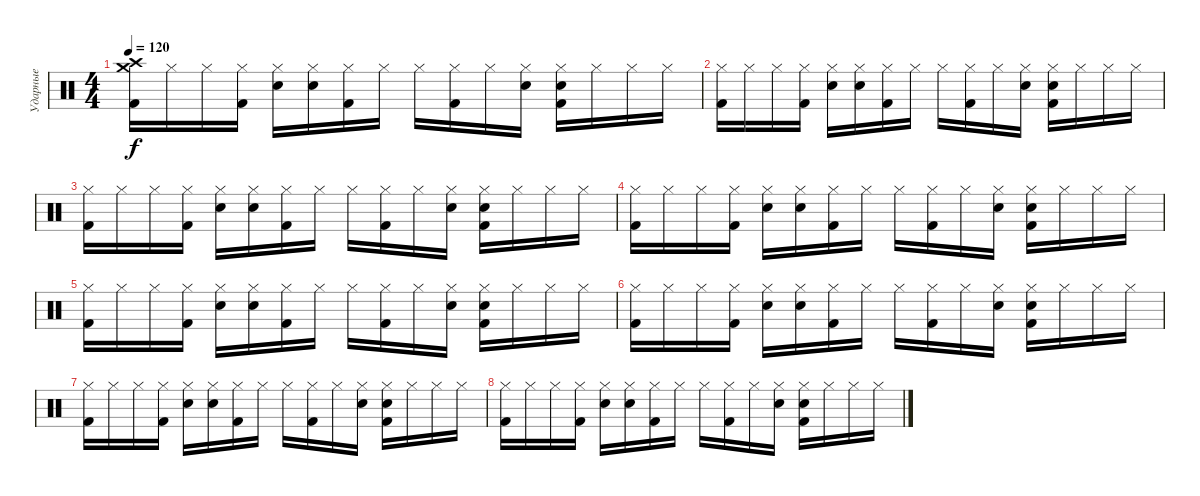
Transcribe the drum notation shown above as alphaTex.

\track ("Ударные" "Ударные") {instrument percussion}
\staff {score}
\articulation defaults
\ts (4 4)
\tempo 120
\clef neutral
\ks c
("Kick (hit) 2" "Crash high (hit)" "Crash medium (hit)").16{dy f} "Hi-Hat (closed)".16 "Hi-Hat (closed)".16 ("Kick (hit) 2" "Hi-Hat (closed)").16 ("Hi-Hat (closed)" "Electric Snare (hit)").16 ("Hi-Hat (closed)" "Electric Snare (hit)").16 ("Kick (hit) 2" "Hi-Hat (closed)").16 "Hi-Hat (closed)".16 "Hi-Hat (closed)".16 ("Kick (hit) 2" "Hi-Hat (closed)").16 "Hi-Hat (closed)".16 ("Hi-Hat (closed)" "Electric Snare (hit)").16 ("Kick (hit) 2" "Hi-Hat (closed)" "Electric Snare (hit)").16 "Hi-Hat (closed)".16 "Hi-Hat (closed)".16 "Hi-Hat (closed)".16 |
("Kick (hit) 2" "Hi-Hat (closed)").16 "Hi-Hat (closed)".16 "Hi-Hat (closed)".16 ("Kick (hit) 2" "Hi-Hat (closed)").16 ("Hi-Hat (closed)" "Electric Snare (hit)").16 ("Hi-Hat (closed)" "Electric Snare (hit)").16 ("Kick (hit) 2" "Hi-Hat (closed)").16 "Hi-Hat (closed)".16 "Hi-Hat (closed)".16 ("Kick (hit) 2" "Hi-Hat (closed)").16 "Hi-Hat (closed)".16 ("Hi-Hat (closed)" "Electric Snare (hit)").16 ("Kick (hit) 2" "Hi-Hat (closed)" "Electric Snare (hit)").16 "Hi-Hat (closed)".16 "Hi-Hat (closed)".16 "Hi-Hat (closed)".16 |
("Kick (hit) 2" "Hi-Hat (closed)").16 "Hi-Hat (closed)".16 "Hi-Hat (closed)".16 ("Kick (hit) 2" "Hi-Hat (closed)").16 ("Hi-Hat (closed)" "Electric Snare (hit)").16 ("Hi-Hat (closed)" "Electric Snare (hit)").16 ("Kick (hit) 2" "Hi-Hat (closed)").16 "Hi-Hat (closed)".16 "Hi-Hat (closed)".16 ("Kick (hit) 2" "Hi-Hat (closed)").16 "Hi-Hat (closed)".16 ("Hi-Hat (closed)" "Electric Snare (hit)").16 ("Kick (hit) 2" "Hi-Hat (closed)" "Electric Snare (hit)").16 "Hi-Hat (closed)".16 "Hi-Hat (closed)".16 "Hi-Hat (closed)".16 |
("Kick (hit) 2" "Hi-Hat (closed)").16 "Hi-Hat (closed)".16 "Hi-Hat (closed)".16 ("Kick (hit) 2" "Hi-Hat (closed)").16 ("Hi-Hat (closed)" "Electric Snare (hit)").16 ("Hi-Hat (closed)" "Electric Snare (hit)").16 ("Kick (hit) 2" "Hi-Hat (closed)").16 "Hi-Hat (closed)".16 "Hi-Hat (closed)".16 ("Kick (hit) 2" "Hi-Hat (closed)").16 "Hi-Hat (closed)".16 ("Hi-Hat (closed)" "Electric Snare (hit)").16 ("Kick (hit) 2" "Hi-Hat (closed)" "Electric Snare (hit)").16 "Hi-Hat (closed)".16 "Hi-Hat (closed)".16 "Hi-Hat (closed)".16 |
("Kick (hit) 2" "Hi-Hat (closed)").16 "Hi-Hat (closed)".16 "Hi-Hat (closed)".16 ("Kick (hit) 2" "Hi-Hat (closed)").16 ("Hi-Hat (closed)" "Electric Snare (hit)").16 ("Hi-Hat (closed)" "Electric Snare (hit)").16 ("Kick (hit) 2" "Hi-Hat (closed)").16 "Hi-Hat (closed)".16 "Hi-Hat (closed)".16 ("Kick (hit) 2" "Hi-Hat (closed)").16 "Hi-Hat (closed)".16 ("Hi-Hat (closed)" "Electric Snare (hit)").16 ("Kick (hit) 2" "Hi-Hat (closed)" "Electric Snare (hit)").16 "Hi-Hat (closed)".16 "Hi-Hat (closed)".16 "Hi-Hat (closed)".16 |
("Kick (hit) 2" "Hi-Hat (closed)").16 "Hi-Hat (closed)".16 "Hi-Hat (closed)".16 ("Kick (hit) 2" "Hi-Hat (closed)").16 ("Hi-Hat (closed)" "Electric Snare (hit)").16 ("Hi-Hat (closed)" "Electric Snare (hit)").16 ("Kick (hit) 2" "Hi-Hat (closed)").16 "Hi-Hat (closed)".16 "Hi-Hat (closed)".16 ("Kick (hit) 2" "Hi-Hat (closed)").16 "Hi-Hat (closed)".16 ("Hi-Hat (closed)" "Electric Snare (hit)").16 ("Kick (hit) 2" "Hi-Hat (closed)" "Electric Snare (hit)").16 "Hi-Hat (closed)".16 "Hi-Hat (closed)".16 "Hi-Hat (closed)".16 |
("Kick (hit) 2" "Hi-Hat (closed)").16 "Hi-Hat (closed)".16 "Hi-Hat (closed)".16 ("Kick (hit) 2" "Hi-Hat (closed)").16 ("Hi-Hat (closed)" "Electric Snare (hit)").16 ("Hi-Hat (closed)" "Electric Snare (hit)").16 ("Kick (hit) 2" "Hi-Hat (closed)").16 "Hi-Hat (closed)".16 "Hi-Hat (closed)".16 ("Kick (hit) 2" "Hi-Hat (closed)").16 "Hi-Hat (closed)".16 ("Hi-Hat (closed)" "Electric Snare (hit)").16 ("Kick (hit) 2" "Hi-Hat (closed)" "Electric Snare (hit)").16 "Hi-Hat (closed)".16 "Hi-Hat (closed)".16 "Hi-Hat (closed)".16 |
("Kick (hit) 2" "Hi-Hat (closed)").16 "Hi-Hat (closed)".16 "Hi-Hat (closed)".16 ("Kick (hit) 2" "Hi-Hat (closed)").16 ("Hi-Hat (closed)" "Electric Snare (hit)").16 ("Hi-Hat (closed)" "Electric Snare (hit)").16 ("Kick (hit) 2" "Hi-Hat (closed)").16 "Hi-Hat (closed)".16 "Hi-Hat (closed)".16 ("Kick (hit) 2" "Hi-Hat (closed)").16 "Hi-Hat (closed)".16 ("Hi-Hat (closed)" "Electric Snare (hit)").16 ("Kick (hit) 2" "Hi-Hat (closed)" "Electric Snare (hit)").16 "Hi-Hat (closed)".16 "Hi-Hat (closed)".16 "Hi-Hat (closed)".16
